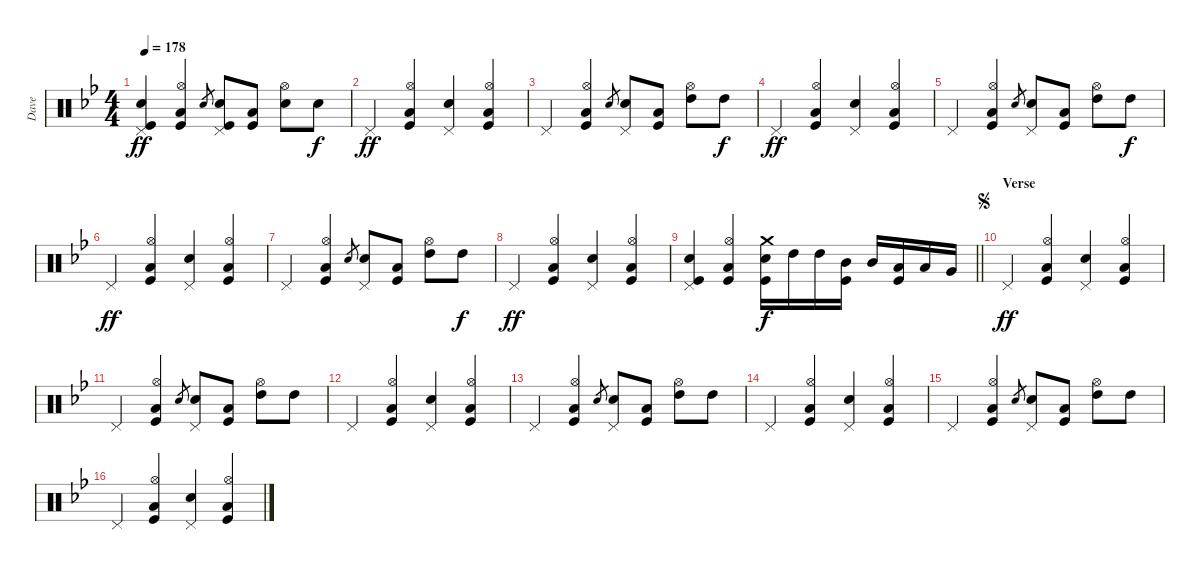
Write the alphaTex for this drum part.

\track ("Dave" "Dave") {instrument percussion}
\staff {score}
\articulation defaults
\ts (4 4)
\tempo 178
\clef neutral
\ks gminor
("Pedal Hi-Hat (hit)" "Snare (hit) 2" "Kick (hit)").4{dy ff} ("Hi-Hat (open)" "Low Floor Tom (hit)" "Kick (hit)").4 "Snare (hit) 2".8{gr} ("Pedal Hi-Hat (hit)" "Snare (hit) 2" "Kick (hit)").8 ("Low Floor Tom (hit)" "Kick (hit)").8 ("Hi-Hat (open)" "Snare (hit) 2").8 "Snare (hit) 2".8{dy f} |
"Pedal Hi-Hat (hit)".4{dy ff} ("Hi-Hat (open)" "Low Floor Tom (hit)" "Kick (hit)").4 ("Pedal Hi-Hat (hit)" "Snare (hit) 2").4 ("Hi-Hat (open)" "Low Floor Tom (hit)" "Kick (hit)").4 |
"Pedal Hi-Hat (hit)".4 ("Hi-Hat (open)" "Low Floor Tom (hit)" "Kick (hit)").4 "Snare (hit) 2".8{gr} ("Pedal Hi-Hat (hit)" "Snare (hit) 2").8 ("Low Floor Tom (hit)" "Kick (hit)").8 ("High Tom (hit)" "Hi-Hat (open)").8 "High Tom (hit)".8{dy f} |
"Pedal Hi-Hat (hit)".4{dy ff} ("Hi-Hat (open)" "Low Floor Tom (hit)" "Kick (hit)").4 ("Pedal Hi-Hat (hit)" "Snare (hit) 2").4 ("Hi-Hat (open)" "Low Floor Tom (hit)" "Kick (hit)").4 |
"Pedal Hi-Hat (hit)".4 ("Hi-Hat (open)" "Low Floor Tom (hit)" "Kick (hit)").4 "Snare (hit) 2".8{gr} ("Pedal Hi-Hat (hit)" "Snare (hit) 2").8 ("Low Floor Tom (hit)" "Kick (hit)").8 ("High Tom (hit)" "Hi-Hat (open)").8 "High Tom (hit)".8{dy f} |
"Pedal Hi-Hat (hit)".4{dy ff} ("Hi-Hat (open)" "Low Floor Tom (hit)" "Kick (hit)").4 ("Pedal Hi-Hat (hit)" "Snare (hit) 2").4 ("Hi-Hat (open)" "Low Floor Tom (hit)" "Kick (hit)").4 |
"Pedal Hi-Hat (hit)".4 ("Hi-Hat (open)" "Low Floor Tom (hit)" "Kick (hit)").4 "Snare (hit) 2".8{gr} ("Pedal Hi-Hat (hit)" "Snare (hit) 2").8 ("Low Floor Tom (hit)" "Kick (hit)").8 ("High Tom (hit)" "Hi-Hat (open)").8 "High Tom (hit)".8{dy f} |
"Pedal Hi-Hat (hit)".4{dy ff} ("Hi-Hat (open)" "Low Floor Tom (hit)" "Kick (hit)").4 ("Pedal Hi-Hat (hit)" "Snare (hit) 2").4 ("Hi-Hat (open)" "Low Floor Tom (hit)" "Kick (hit)").4 |
\barLineRight lightlight
("Pedal Hi-Hat (hit)" "Snare (hit) 2" "Kick (hit)").4 ("Hi-Hat (open)" "Low Floor Tom (hit)" "Kick (hit)").4 ("Crash medium (hit)" "Snare (hit) 2" "Kick (hit)").16{dy f} "High Tom (hit)".16 "High Tom (hit)".16 ("Mid Tom (hit)" "Kick (hit)").16 "Mid Tom (hit)".16 ("Low Tom (hit)" "Kick (hit)").16 "Low Tom (hit)".16 "Very Low Tom (hit)".16 |
\section ("" "Verse")
\jump segno "Pedal Hi-Hat (hit)".4{dy ff}
("Hi-Hat (open)" "Low Floor Tom (hit)" "Kick (hit)").4 ("Pedal Hi-Hat (hit)" "Snare (hit) 2").4 ("Hi-Hat (open)" "Low Floor Tom (hit)" "Kick (hit)").4 |
"Pedal Hi-Hat (hit)".4 ("Hi-Hat (open)" "Low Floor Tom (hit)" "Kick (hit)").4 "Snare (hit) 2".8{gr} ("Pedal Hi-Hat (hit)" "Snare (hit) 2").8 ("Low Floor Tom (hit)" "Kick (hit)").8 ("High Tom (hit)" "Hi-Hat (open)").8 "High Tom (hit)".8 |
"Pedal Hi-Hat (hit)".4 ("Hi-Hat (open)" "Low Floor Tom (hit)" "Kick (hit)").4 ("Pedal Hi-Hat (hit)" "Snare (hit) 2").4 ("Hi-Hat (open)" "Low Floor Tom (hit)" "Kick (hit)").4 |
"Pedal Hi-Hat (hit)".4 ("Hi-Hat (open)" "Low Floor Tom (hit)" "Kick (hit)").4 "Snare (hit) 2".8{gr} ("Pedal Hi-Hat (hit)" "Snare (hit) 2").8 ("Low Floor Tom (hit)" "Kick (hit)").8 ("High Tom (hit)" "Hi-Hat (open)").8 "High Tom (hit)".8 |
"Pedal Hi-Hat (hit)".4 ("Hi-Hat (open)" "Low Floor Tom (hit)" "Kick (hit)").4 ("Pedal Hi-Hat (hit)" "Snare (hit) 2").4 ("Hi-Hat (open)" "Low Floor Tom (hit)" "Kick (hit)").4 |
"Pedal Hi-Hat (hit)".4 ("Hi-Hat (open)" "Low Floor Tom (hit)" "Kick (hit)").4 "Snare (hit) 2".8{gr} ("Pedal Hi-Hat (hit)" "Snare (hit) 2").8 ("Low Floor Tom (hit)" "Kick (hit)").8 ("High Tom (hit)" "Hi-Hat (open)").8 "High Tom (hit)".8 |
"Pedal Hi-Hat (hit)".4 ("Hi-Hat (open)" "Low Floor Tom (hit)" "Kick (hit)").4 ("Pedal Hi-Hat (hit)" "Snare (hit) 2").4 ("Hi-Hat (open)" "Low Floor Tom (hit)" "Kick (hit)").4
